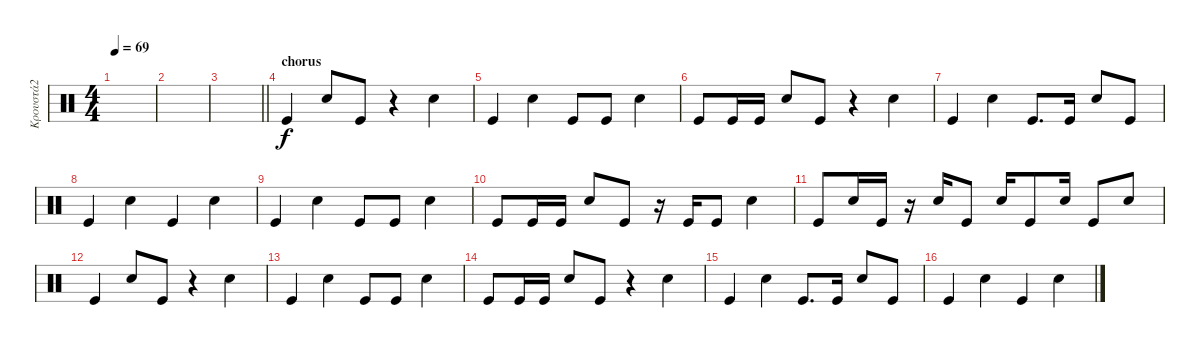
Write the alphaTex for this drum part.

\track ("Κρουστά2" "Κρουστά2") {instrument percussion}
\staff {score}
\articulation defaults
\ts (4 4)
\tempo 69
\clef neutral
\ks c
|
|
\barLineRight lightlight
|
\section ("" "chorus")
"Kick (hit)".4 "Snare (hit) 2".8 "Kick (hit)".8 r.4 "Snare (hit) 2".4 |
"Kick (hit)".4 "Snare (hit) 2".4 "Kick (hit)".8 "Kick (hit)".8 "Snare (hit) 2".4 |
"Kick (hit)".8 "Kick (hit)".16 "Kick (hit)".16 "Snare (hit) 2".8 "Kick (hit)".8 r.4 "Snare (hit) 2".4 |
"Kick (hit)".4 "Snare (hit) 2".4 "Kick (hit)".8{d} "Kick (hit)".16 "Snare (hit) 2".8 "Kick (hit)".8 |
"Kick (hit)".4 "Snare (hit) 2".4 "Kick (hit)".4 "Snare (hit) 2".4 |
"Kick (hit)".4 "Snare (hit) 2".4 "Kick (hit)".8 "Kick (hit)".8 "Snare (hit) 2".4 |
"Kick (hit)".8 "Kick (hit)".16 "Kick (hit)".16 "Snare (hit) 2".8 "Kick (hit)".8 r.16 "Kick (hit)".16 "Kick (hit)".8 "Snare (hit) 2".4 |
"Kick (hit)".8 "Snare (hit) 2".16 "Kick (hit)".16 r.16 "Snare (hit) 2".16 "Kick (hit)".8 "Snare (hit) 2".16 "Kick (hit)".8 "Snare (hit) 2".16 "Kick (hit)".8 "Snare (hit) 2".8 |
"Kick (hit)".4 "Snare (hit) 2".8 "Kick (hit)".8 r.4 "Snare (hit) 2".4 |
"Kick (hit)".4 "Snare (hit) 2".4 "Kick (hit)".8 "Kick (hit)".8 "Snare (hit) 2".4 |
"Kick (hit)".8 "Kick (hit)".16 "Kick (hit)".16 "Snare (hit) 2".8 "Kick (hit)".8 r.4 "Snare (hit) 2".4 |
"Kick (hit)".4 "Snare (hit) 2".4 "Kick (hit)".8{d} "Kick (hit)".16 "Snare (hit) 2".8 "Kick (hit)".8 |
"Kick (hit)".4 "Snare (hit) 2".4 "Kick (hit)".4 "Snare (hit) 2".4
